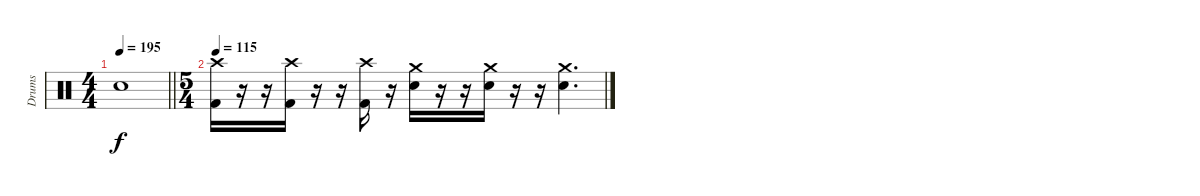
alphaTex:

\track ("Drums" "Drums") {instrument percussion}
\staff {score}
\articulation defaults
\ts (4 4)
\tempo 195
\clef neutral
\barLineRight lightlight
\ks c "Snare (hit)"{t}.1{dy f}
|
\ts (5 4)
\tempo 115
("Crash high (hit)" "Kick (hit) 2").16 r.16 r.16 ("Crash high (hit)" "Kick (hit) 2").16 r.16 r.16 ("Crash high (hit)" "Kick (hit) 2").16 r.16 ("Crash medium (hit)" "Snare (hit) 2").16 r.16 r.16 ("Crash medium (hit)" "Snare (hit) 2").16 r.16 r.16 ("Crash medium (hit)" "Snare (hit) 2").4{d}
